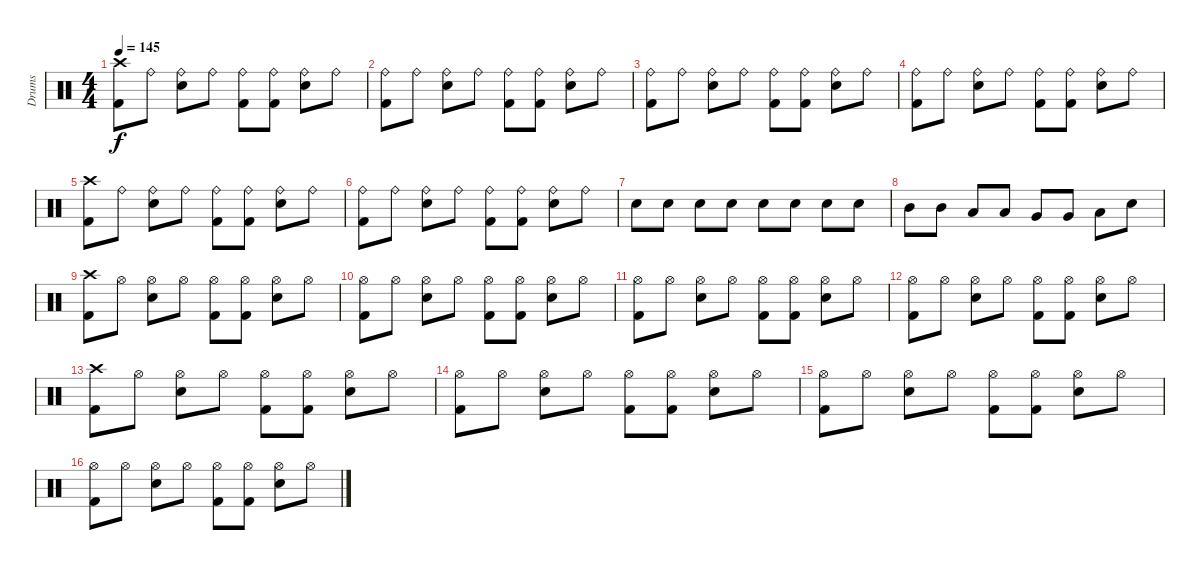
\track ("Drums" "Drums") {instrument percussion}
\staff {score}
\articulation defaults
\ts (4 4)
\tempo 145
\clef neutral
\ks c
("Crash high (hit)" "Kick (hit) 2").8{dy f} "Ride (bell)".8 ("Ride (bell)" "Electric Snare (hit)").8 "Ride (bell)".8 ("Ride (bell)" "Kick (hit) 2").8 ("Ride (bell)" "Kick (hit) 2").8 ("Ride (bell)" "Electric Snare (hit)").8 "Ride (bell)".8 |
("Ride (bell)" "Kick (hit) 2").8 "Ride (bell)".8 ("Ride (bell)" "Electric Snare (hit)").8 "Ride (bell)".8 ("Ride (bell)" "Kick (hit) 2").8 ("Ride (bell)" "Kick (hit) 2").8 ("Ride (bell)" "Electric Snare (hit)").8 "Ride (bell)".8 |
("Ride (bell)" "Kick (hit) 2").8 "Ride (bell)".8 ("Ride (bell)" "Electric Snare (hit)").8 "Ride (bell)".8 ("Ride (bell)" "Kick (hit) 2").8 ("Ride (bell)" "Kick (hit) 2").8 ("Ride (bell)" "Electric Snare (hit)").8 "Ride (bell)".8 |
("Ride (bell)" "Kick (hit) 2").8 "Ride (bell)".8 ("Ride (bell)" "Electric Snare (hit)").8 "Ride (bell)".8 ("Ride (bell)" "Kick (hit) 2").8 ("Ride (bell)" "Kick (hit) 2").8 ("Ride (bell)" "Electric Snare (hit)").8 "Ride (bell)".8 |
("Crash high (hit)" "Kick (hit) 2").8 "Ride (bell)".8 ("Ride (bell)" "Electric Snare (hit)").8 "Ride (bell)".8 ("Ride (bell)" "Kick (hit) 2").8 ("Ride (bell)" "Kick (hit) 2").8 ("Ride (bell)" "Electric Snare (hit)").8 "Ride (bell)".8 |
("Ride (bell)" "Kick (hit) 2").8 "Ride (bell)".8 ("Ride (bell)" "Electric Snare (hit)").8 "Ride (bell)".8 ("Ride (bell)" "Kick (hit) 2").8 ("Ride (bell)" "Kick (hit) 2").8 ("Ride (bell)" "Electric Snare (hit)").8 "Ride (bell)".8 |
"Electric Snare (hit)".8 "Electric Snare (hit)".8 "Electric Snare (hit)".8 "Electric Snare (hit)".8 "Electric Snare (hit)".8 "Electric Snare (hit)".8 "Electric Snare (hit)".8 "Electric Snare (hit)".8 |
"Mid Tom (hit)".8 "Mid Tom (hit)".8 "Low Tom (hit)".8 "Low Tom (hit)".8 "Very Low Tom (hit)".8 "Very Low Tom (hit)".8 "Low Floor Tom (hit)".8 "Electric Snare (hit)".8 |
("Crash high (hit)" "Kick (hit) 2").8 "Hi-Hat (open)".8 ("Hi-Hat (open)" "Electric Snare (hit)").8 "Hi-Hat (open)".8 ("Hi-Hat (open)" "Kick (hit) 2").8 ("Hi-Hat (open)" "Kick (hit) 2").8 ("Hi-Hat (open)" "Electric Snare (hit)").8 "Hi-Hat (open)".8 |
("Hi-Hat (open)" "Kick (hit) 2").8 "Hi-Hat (open)".8 ("Hi-Hat (open)" "Electric Snare (hit)").8 "Hi-Hat (open)".8 ("Hi-Hat (open)" "Kick (hit) 2").8 ("Hi-Hat (open)" "Kick (hit) 2").8 ("Hi-Hat (open)" "Electric Snare (hit)").8 "Hi-Hat (open)".8 |
("Hi-Hat (open)" "Kick (hit) 2").8 "Hi-Hat (open)".8 ("Hi-Hat (open)" "Electric Snare (hit)").8 "Hi-Hat (open)".8 ("Hi-Hat (open)" "Kick (hit) 2").8 ("Hi-Hat (open)" "Kick (hit) 2").8 ("Hi-Hat (open)" "Electric Snare (hit)").8 "Hi-Hat (open)".8 |
("Hi-Hat (open)" "Kick (hit) 2").8 "Hi-Hat (open)".8 ("Hi-Hat (open)" "Electric Snare (hit)").8 "Hi-Hat (open)".8 ("Hi-Hat (open)" "Kick (hit) 2").8 ("Hi-Hat (open)" "Kick (hit) 2").8 ("Hi-Hat (open)" "Electric Snare (hit)").8 "Hi-Hat (open)".8 |
("Crash high (hit)" "Kick (hit) 2").8 "Hi-Hat (open)".8 ("Hi-Hat (open)" "Electric Snare (hit)").8 "Hi-Hat (open)".8 ("Hi-Hat (open)" "Kick (hit) 2").8 ("Hi-Hat (open)" "Kick (hit) 2").8 ("Hi-Hat (open)" "Electric Snare (hit)").8 "Hi-Hat (open)".8 |
("Hi-Hat (open)" "Kick (hit) 2").8 "Hi-Hat (open)".8 ("Hi-Hat (open)" "Electric Snare (hit)").8 "Hi-Hat (open)".8 ("Hi-Hat (open)" "Kick (hit) 2").8 ("Hi-Hat (open)" "Kick (hit) 2").8 ("Hi-Hat (open)" "Electric Snare (hit)").8 "Hi-Hat (open)".8 |
("Hi-Hat (open)" "Kick (hit) 2").8 "Hi-Hat (open)".8 ("Hi-Hat (open)" "Electric Snare (hit)").8 "Hi-Hat (open)".8 ("Hi-Hat (open)" "Kick (hit) 2").8 ("Hi-Hat (open)" "Kick (hit) 2").8 ("Hi-Hat (open)" "Electric Snare (hit)").8 "Hi-Hat (open)".8 |
("Hi-Hat (open)" "Kick (hit) 2").8 "Hi-Hat (open)".8 ("Hi-Hat (open)" "Electric Snare (hit)").8 "Hi-Hat (open)".8 ("Hi-Hat (open)" "Kick (hit) 2").8 ("Hi-Hat (open)" "Kick (hit) 2").8 ("Hi-Hat (open)" "Electric Snare (hit)").8 "Hi-Hat (open)".8
